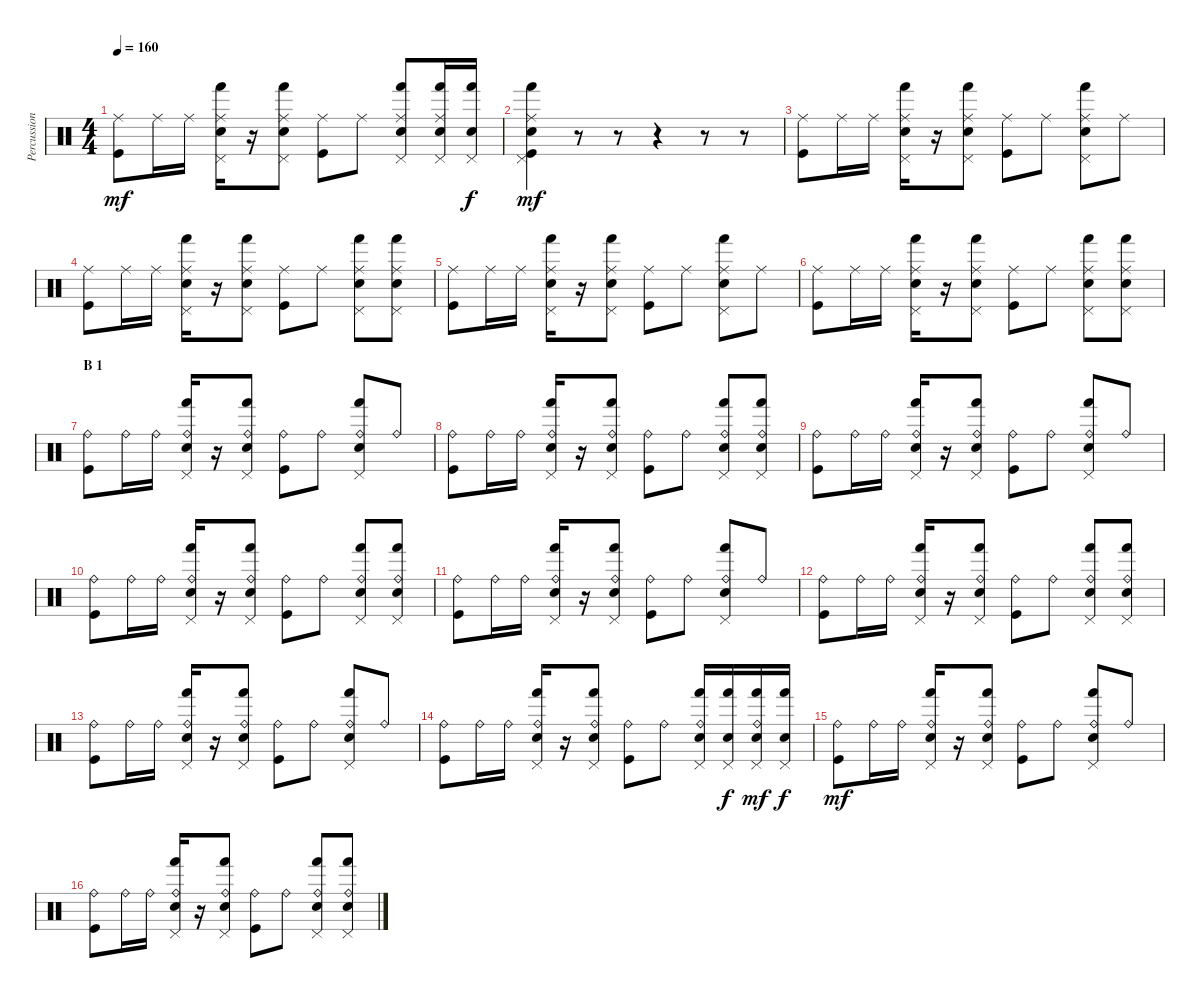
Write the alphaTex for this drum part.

\track ("Percussion" "Percussion") {instrument percussion}
\staff {score}
\articulation defaults
\ts (4 4)
\tempo 160
\clef neutral
\ks c
("Ride (middle)" "Kick (hit)").8{dy mf} "Ride (middle)".16 "Ride (middle)".16 ("Ride (middle)" "Pedal Hi-Hat (hit)" "Hand (hit)" "Electric Snare (hit)").16 r.16 ("Ride (middle)" "Pedal Hi-Hat (hit)" "Hand (hit)" "Electric Snare (hit)").8 ("Ride (middle)" "Kick (hit)").8 "Ride (middle)".8 ("Ride (middle)" "Pedal Hi-Hat (hit)" "Hand (hit)" "Electric Snare (hit)").8 ("Ride (middle)" "Pedal Hi-Hat (hit)" "Hand (hit)" "Electric Snare (hit)").16 ("Pedal Hi-Hat (hit)" "Hand (hit)" "Electric Snare (hit)").16{dy f} |
("Ride (middle)" "Pedal Hi-Hat (hit)" "Hand (hit)" "Electric Snare (hit)" "Kick (hit)").4{dy mf} r.8 r.8 r.4 r.8 r.8 |
("Ride (middle)" "Kick (hit)").8 "Ride (middle)".16 "Ride (middle)".16 ("Ride (middle)" "Pedal Hi-Hat (hit)" "Hand (hit)" "Electric Snare (hit)").16 r.16 ("Ride (middle)" "Pedal Hi-Hat (hit)" "Hand (hit)" "Electric Snare (hit)").8 ("Ride (middle)" "Kick (hit)").8 "Ride (middle)".8 ("Ride (middle)" "Pedal Hi-Hat (hit)" "Hand (hit)" "Electric Snare (hit)").8 "Ride (middle)".8 |
("Ride (middle)" "Kick (hit)").8 "Ride (middle)".16 "Ride (middle)".16 ("Ride (middle)" "Pedal Hi-Hat (hit)" "Hand (hit)" "Electric Snare (hit)").16 r.16 ("Ride (middle)" "Pedal Hi-Hat (hit)" "Hand (hit)" "Electric Snare (hit)").8 ("Ride (middle)" "Kick (hit)").8 "Ride (middle)".8 ("Ride (middle)" "Pedal Hi-Hat (hit)" "Hand (hit)" "Electric Snare (hit)").8 ("Ride (middle)" "Pedal Hi-Hat (hit)" "Hand (hit)" "Electric Snare (hit)").8 |
("Ride (middle)" "Kick (hit)").8 "Ride (middle)".16 "Ride (middle)".16 ("Ride (middle)" "Pedal Hi-Hat (hit)" "Hand (hit)" "Electric Snare (hit)").16 r.16 ("Ride (middle)" "Pedal Hi-Hat (hit)" "Hand (hit)" "Electric Snare (hit)").8 ("Ride (middle)" "Kick (hit)").8 "Ride (middle)".8 ("Ride (middle)" "Pedal Hi-Hat (hit)" "Hand (hit)" "Electric Snare (hit)").8 "Ride (middle)".8 |
("Ride (middle)" "Kick (hit)").8 "Ride (middle)".16 "Ride (middle)".16 ("Ride (middle)" "Pedal Hi-Hat (hit)" "Hand (hit)" "Electric Snare (hit)").16 r.16 ("Ride (middle)" "Pedal Hi-Hat (hit)" "Hand (hit)" "Electric Snare (hit)").8 ("Ride (middle)" "Kick (hit)").8 "Ride (middle)".8 ("Ride (middle)" "Pedal Hi-Hat (hit)" "Hand (hit)" "Electric Snare (hit)").8 ("Ride (middle)" "Pedal Hi-Hat (hit)" "Hand (hit)" "Electric Snare (hit)").8 |
\section ("" "B 1")
("Ride (bell)" "Kick (hit)").8 "Ride (bell)".16 "Ride (bell)".16 ("Ride (bell)" "Pedal Hi-Hat (hit)" "Hand (hit)" "Electric Snare (hit)").16 r.16 ("Ride (bell)" "Pedal Hi-Hat (hit)" "Hand (hit)" "Electric Snare (hit)").8 ("Ride (bell)" "Kick (hit)").8 "Ride (bell)".8 ("Ride (bell)" "Pedal Hi-Hat (hit)" "Hand (hit)" "Electric Snare (hit)").8 "Ride (bell)".8 |
("Ride (bell)" "Kick (hit)").8 "Ride (bell)".16 "Ride (bell)".16 ("Ride (bell)" "Pedal Hi-Hat (hit)" "Hand (hit)" "Electric Snare (hit)").16 r.16 ("Ride (bell)" "Pedal Hi-Hat (hit)" "Hand (hit)" "Electric Snare (hit)").8 ("Ride (bell)" "Kick (hit)").8 "Ride (bell)".8 ("Ride (bell)" "Pedal Hi-Hat (hit)" "Hand (hit)" "Electric Snare (hit)").8 ("Ride (bell)" "Pedal Hi-Hat (hit)" "Hand (hit)" "Electric Snare (hit)").8 |
("Ride (bell)" "Kick (hit)").8 "Ride (bell)".16 "Ride (bell)".16 ("Ride (bell)" "Pedal Hi-Hat (hit)" "Hand (hit)" "Electric Snare (hit)").16 r.16 ("Ride (bell)" "Pedal Hi-Hat (hit)" "Hand (hit)" "Electric Snare (hit)").8 ("Ride (bell)" "Kick (hit)").8 "Ride (bell)".8 ("Ride (bell)" "Pedal Hi-Hat (hit)" "Hand (hit)" "Electric Snare (hit)").8 "Ride (bell)".8 |
("Ride (bell)" "Kick (hit)").8 "Ride (bell)".16 "Ride (bell)".16 ("Ride (bell)" "Pedal Hi-Hat (hit)" "Hand (hit)" "Electric Snare (hit)").16 r.16 ("Ride (bell)" "Pedal Hi-Hat (hit)" "Hand (hit)" "Electric Snare (hit)").8 ("Ride (bell)" "Kick (hit)").8 "Ride (bell)".8 ("Ride (bell)" "Pedal Hi-Hat (hit)" "Hand (hit)" "Electric Snare (hit)").8 ("Ride (bell)" "Pedal Hi-Hat (hit)" "Hand (hit)" "Electric Snare (hit)").8 |
("Ride (bell)" "Kick (hit)").8 "Ride (bell)".16 "Ride (bell)".16 ("Ride (bell)" "Pedal Hi-Hat (hit)" "Hand (hit)" "Electric Snare (hit)").16 r.16 ("Ride (bell)" "Pedal Hi-Hat (hit)" "Hand (hit)" "Electric Snare (hit)").8 ("Ride (bell)" "Kick (hit)").8 "Ride (bell)".8 ("Ride (bell)" "Pedal Hi-Hat (hit)" "Hand (hit)" "Electric Snare (hit)").8 "Ride (bell)".8 |
("Ride (bell)" "Kick (hit)").8 "Ride (bell)".16 "Ride (bell)".16 ("Ride (bell)" "Pedal Hi-Hat (hit)" "Hand (hit)" "Electric Snare (hit)").16 r.16 ("Ride (bell)" "Pedal Hi-Hat (hit)" "Hand (hit)" "Electric Snare (hit)").8 ("Ride (bell)" "Kick (hit)").8 "Ride (bell)".8 ("Ride (bell)" "Pedal Hi-Hat (hit)" "Hand (hit)" "Electric Snare (hit)").8 ("Ride (bell)" "Pedal Hi-Hat (hit)" "Hand (hit)" "Electric Snare (hit)").8 |
("Ride (bell)" "Kick (hit)").8 "Ride (bell)".16 "Ride (bell)".16 ("Ride (bell)" "Pedal Hi-Hat (hit)" "Hand (hit)" "Electric Snare (hit)").16 r.16 ("Ride (bell)" "Pedal Hi-Hat (hit)" "Hand (hit)" "Electric Snare (hit)").8 ("Ride (bell)" "Kick (hit)").8 "Ride (bell)".8 ("Ride (bell)" "Pedal Hi-Hat (hit)" "Hand (hit)" "Electric Snare (hit)").8 "Ride (bell)".8 |
("Ride (bell)" "Kick (hit)").8 "Ride (bell)".16 "Ride (bell)".16 ("Ride (bell)" "Pedal Hi-Hat (hit)" "Hand (hit)" "Electric Snare (hit)").16 r.16 ("Ride (bell)" "Pedal Hi-Hat (hit)" "Hand (hit)" "Electric Snare (hit)").8 ("Ride (bell)" "Kick (hit)").8 "Ride (bell)".8 ("Ride (bell)" "Pedal Hi-Hat (hit)" "Hand (hit)" "Electric Snare (hit)").16 ("Pedal Hi-Hat (hit)" "Hand (hit)" "Electric Snare (hit)").16{dy f} ("Ride (bell)" "Pedal Hi-Hat (hit)" "Hand (hit)" "Electric Snare (hit)").16{dy mf} ("Pedal Hi-Hat (hit)" "Hand (hit)" "Electric Snare (hit)").16{dy f} |
("Ride (bell)" "Kick (hit)").8{dy mf} "Ride (bell)".16 "Ride (bell)".16 ("Ride (bell)" "Pedal Hi-Hat (hit)" "Hand (hit)" "Electric Snare (hit)").16 r.16 ("Ride (bell)" "Pedal Hi-Hat (hit)" "Hand (hit)" "Electric Snare (hit)").8 ("Ride (bell)" "Kick (hit)").8 "Ride (bell)".8 ("Ride (bell)" "Pedal Hi-Hat (hit)" "Hand (hit)" "Electric Snare (hit)").8 "Ride (bell)".8 |
("Ride (bell)" "Kick (hit)").8 "Ride (bell)".16 "Ride (bell)".16 ("Ride (bell)" "Pedal Hi-Hat (hit)" "Hand (hit)" "Electric Snare (hit)").16 r.16 ("Ride (bell)" "Pedal Hi-Hat (hit)" "Hand (hit)" "Electric Snare (hit)").8 ("Ride (bell)" "Kick (hit)").8 "Ride (bell)".8 ("Ride (bell)" "Pedal Hi-Hat (hit)" "Hand (hit)" "Electric Snare (hit)").8 ("Ride (bell)" "Pedal Hi-Hat (hit)" "Hand (hit)" "Electric Snare (hit)").8
